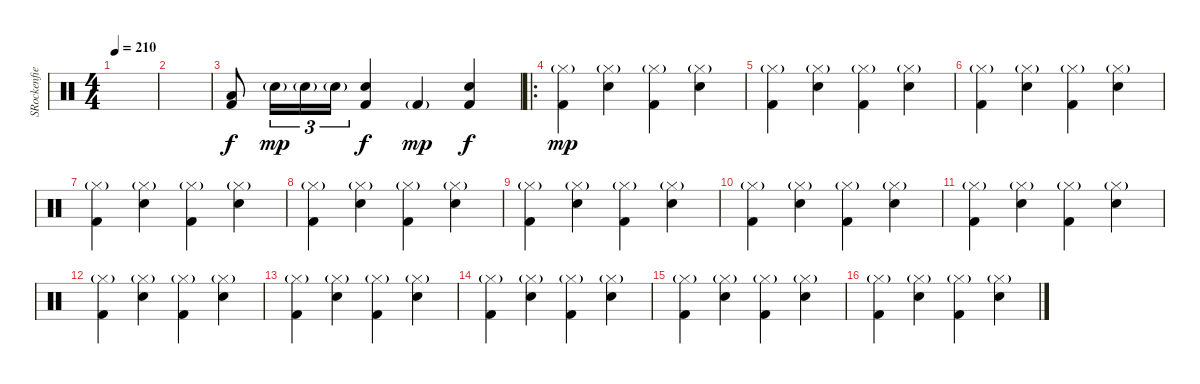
\track ("SRockenfield" "SRockenfie") {instrument percussion}
\staff {score}
\articulation defaults
\ts (4 4)
\tempo 210
\clef neutral
\ks c
|
|
("Low Floor Tom (hit)" "Kick (hit) 2").8 "Electric Snare (hit)"{g}.16{tu (3 2) dy mp} "Electric Snare (hit)"{g}.16{tu (3 2)} "Electric Snare (hit)"{g}.16{tu (3 2)} ("Electric Snare (hit)" "Kick (hit) 2").4{dy f} "Kick (hit) 2"{g}.4{dy mp} ("Electric Snare (hit)" "Kick (hit) 2").4{dy f} |
\ro
("Hi-Hat (closed)"{g} "Kick (hit) 2").4{dy mp} ("Hi-Hat (closed)"{g} "Electric Snare (hit)").4 ("Hi-Hat (closed)"{g} "Kick (hit) 2").4 ("Hi-Hat (closed)"{g} "Electric Snare (hit)").4 |
("Hi-Hat (closed)"{g} "Kick (hit) 2").4 ("Hi-Hat (closed)"{g} "Electric Snare (hit)").4 ("Hi-Hat (closed)"{g} "Kick (hit) 2").4 ("Hi-Hat (closed)"{g} "Electric Snare (hit)").4 |
("Hi-Hat (closed)"{g} "Kick (hit) 2").4 ("Hi-Hat (closed)"{g} "Electric Snare (hit)").4 ("Hi-Hat (closed)"{g} "Kick (hit) 2").4 ("Hi-Hat (closed)"{g} "Electric Snare (hit)").4 |
("Hi-Hat (closed)"{g} "Kick (hit) 2").4 ("Hi-Hat (closed)"{g} "Electric Snare (hit)").4 ("Hi-Hat (closed)"{g} "Kick (hit) 2").4 ("Hi-Hat (closed)"{g} "Electric Snare (hit)").4 |
("Hi-Hat (closed)"{g} "Kick (hit) 2").4 ("Hi-Hat (closed)"{g} "Electric Snare (hit)").4 ("Hi-Hat (closed)"{g} "Kick (hit) 2").4 ("Hi-Hat (closed)"{g} "Electric Snare (hit)").4 |
("Hi-Hat (closed)"{g} "Kick (hit) 2").4 ("Hi-Hat (closed)"{g} "Electric Snare (hit)").4 ("Hi-Hat (closed)"{g} "Kick (hit) 2").4 ("Hi-Hat (closed)"{g} "Electric Snare (hit)").4 |
("Hi-Hat (closed)"{g} "Kick (hit) 2").4 ("Hi-Hat (closed)"{g} "Electric Snare (hit)").4 ("Hi-Hat (closed)"{g} "Kick (hit) 2").4 ("Hi-Hat (closed)"{g} "Electric Snare (hit)").4 |
("Hi-Hat (closed)"{g} "Kick (hit) 2").4 ("Hi-Hat (closed)"{g} "Electric Snare (hit)").4 ("Hi-Hat (closed)"{g} "Kick (hit) 2").4 ("Hi-Hat (closed)"{g} "Electric Snare (hit)").4 |
("Hi-Hat (closed)"{g} "Kick (hit) 2").4 ("Hi-Hat (closed)"{g} "Electric Snare (hit)").4 ("Hi-Hat (closed)"{g} "Kick (hit) 2").4 ("Hi-Hat (closed)"{g} "Electric Snare (hit)").4 |
("Hi-Hat (closed)"{g} "Kick (hit) 2").4 ("Hi-Hat (closed)"{g} "Electric Snare (hit)").4 ("Hi-Hat (closed)"{g} "Kick (hit) 2").4 ("Hi-Hat (closed)"{g} "Electric Snare (hit)").4 |
("Hi-Hat (closed)"{g} "Kick (hit) 2").4 ("Hi-Hat (closed)"{g} "Electric Snare (hit)").4 ("Hi-Hat (closed)"{g} "Kick (hit) 2").4 ("Hi-Hat (closed)"{g} "Electric Snare (hit)").4 |
("Hi-Hat (closed)"{g} "Kick (hit) 2").4 ("Hi-Hat (closed)"{g} "Electric Snare (hit)").4 ("Hi-Hat (closed)"{g} "Kick (hit) 2").4 ("Hi-Hat (closed)"{g} "Electric Snare (hit)").4 |
("Hi-Hat (closed)"{g} "Kick (hit) 2").4 ("Hi-Hat (closed)"{g} "Electric Snare (hit)").4 ("Hi-Hat (closed)"{g} "Kick (hit) 2").4 ("Hi-Hat (closed)"{g} "Electric Snare (hit)").4
